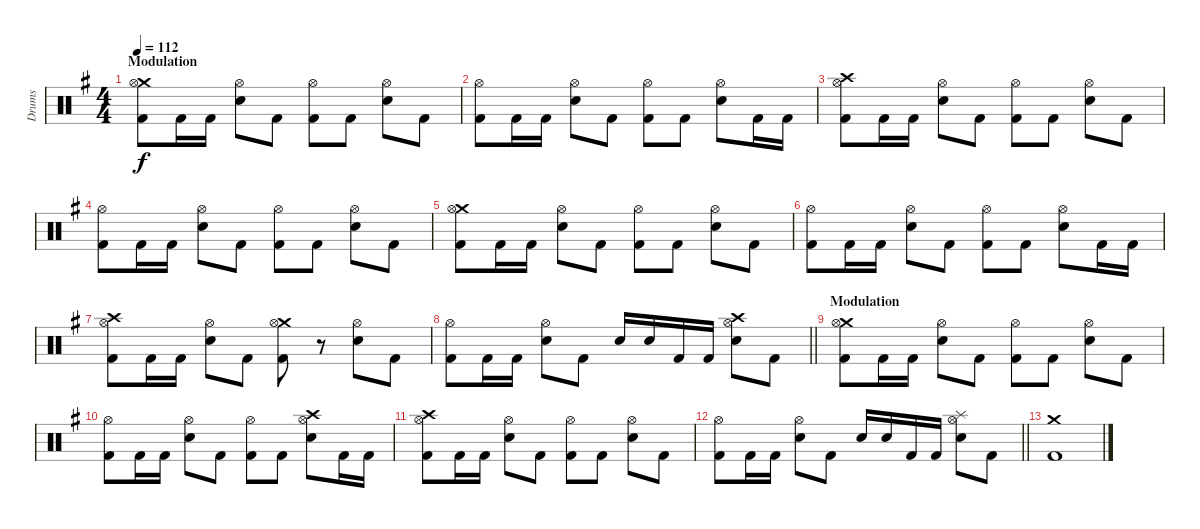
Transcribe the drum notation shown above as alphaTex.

\track ("Drums" "Drums") {instrument percussion}
\staff {score}
\articulation defaults
\ts (4 4)
\section ("" "Modulation")
\tempo 112
\clef neutral
\ks eminor
("Crash medium (hit)" "Hi-Hat (open)" "Kick (hit) 2").8{dy f} "Kick (hit) 2".16 "Kick (hit) 2".16 ("Hi-Hat (open)" "Electric Snare (hit)").8 "Kick (hit) 2".8 ("Hi-Hat (open)" "Kick (hit) 2").8 "Kick (hit) 2".8 ("Hi-Hat (open)" "Electric Snare (hit)").8 "Kick (hit) 2".8 |
("Hi-Hat (open)" "Kick (hit) 2").8 "Kick (hit) 2".16 "Kick (hit) 2".16 ("Hi-Hat (open)" "Electric Snare (hit)").8 "Kick (hit) 2".8 ("Hi-Hat (open)" "Kick (hit) 2").8 "Kick (hit) 2".8 ("Hi-Hat (open)" "Electric Snare (hit)").8 "Kick (hit) 2".16 "Kick (hit) 2".16 |
("Crash high (hit)" "Hi-Hat (open)" "Kick (hit) 2").8 "Kick (hit) 2".16 "Kick (hit) 2".16 ("Hi-Hat (open)" "Electric Snare (hit)").8 "Kick (hit) 2".8 ("Hi-Hat (open)" "Kick (hit) 2").8 "Kick (hit) 2".8 ("Hi-Hat (open)" "Electric Snare (hit)").8 "Kick (hit) 2".8 |
("Hi-Hat (open)" "Kick (hit) 2").8 "Kick (hit) 2".16 "Kick (hit) 2".16 ("Hi-Hat (open)" "Electric Snare (hit)").8 "Kick (hit) 2".8 ("Hi-Hat (open)" "Kick (hit) 2").8 "Kick (hit) 2".8 ("Hi-Hat (open)" "Electric Snare (hit)").8 "Kick (hit) 2".8 |
("Crash medium (hit)" "Hi-Hat (open)" "Kick (hit) 2").8 "Kick (hit) 2".16 "Kick (hit) 2".16 ("Hi-Hat (open)" "Electric Snare (hit)").8 "Kick (hit) 2".8 ("Hi-Hat (open)" "Kick (hit) 2").8 "Kick (hit) 2".8 ("Hi-Hat (open)" "Electric Snare (hit)").8 "Kick (hit) 2".8 |
("Hi-Hat (open)" "Kick (hit) 2").8 "Kick (hit) 2".16 "Kick (hit) 2".16 ("Hi-Hat (open)" "Electric Snare (hit)").8 "Kick (hit) 2".8 ("Hi-Hat (open)" "Kick (hit) 2").8 "Kick (hit) 2".8 ("Hi-Hat (open)" "Electric Snare (hit)").8 "Kick (hit) 2".16 "Kick (hit) 2".16 |
("Crash high (hit)" "Hi-Hat (open)" "Kick (hit) 2").8 "Kick (hit) 2".16 "Kick (hit) 2".16 ("Hi-Hat (open)" "Electric Snare (hit)").8 "Kick (hit) 2".8 ("Crash medium (hit)" "Hi-Hat (open)" "Kick (hit) 2").8 r.8 ("Hi-Hat (open)" "Electric Snare (hit)").8 "Kick (hit) 2".8 |
\barLineRight lightlight
("Hi-Hat (open)" "Kick (hit) 2").8 "Kick (hit) 2".16 "Kick (hit) 2".16 ("Hi-Hat (open)" "Electric Snare (hit)").8 "Kick (hit) 2".8 "Electric Snare (hit)".16 "Electric Snare (hit)".16 "Kick (hit) 2".16 "Kick (hit) 2".16 ("Crash high (hit)" "Hi-Hat (open)" "Electric Snare (hit)").8 "Kick (hit) 2".8 |
\section ("" "Modulation")
("Crash medium (hit)" "Hi-Hat (open)" "Kick (hit) 2").8 "Kick (hit) 2".16 "Kick (hit) 2".16 ("Hi-Hat (open)" "Electric Snare (hit)").8 "Kick (hit) 2".8 ("Hi-Hat (open)" "Kick (hit) 2").8 "Kick (hit) 2".8 ("Hi-Hat (open)" "Electric Snare (hit)").8 "Kick (hit) 2".8 |
("Hi-Hat (open)" "Kick (hit) 2").8 "Kick (hit) 2".16 "Kick (hit) 2".16 ("Hi-Hat (open)" "Electric Snare (hit)").8 "Kick (hit) 2".8 ("Hi-Hat (open)" "Kick (hit) 2").8 "Kick (hit) 2".8 ("Crash high (hit)" "Hi-Hat (open)" "Electric Snare (hit)").8 "Kick (hit) 2".16 "Kick (hit) 2".16 |
("Crash high (hit)" "Hi-Hat (open)" "Kick (hit) 2").8 "Kick (hit) 2".16 "Kick (hit) 2".16 ("Hi-Hat (open)" "Electric Snare (hit)").8 "Kick (hit) 2".8 ("Hi-Hat (open)" "Kick (hit) 2").8 "Kick (hit) 2".8 ("Hi-Hat (open)" "Electric Snare (hit)").8 "Kick (hit) 2".8 |
\barLineRight lightlight
("Hi-Hat (open)" "Kick (hit) 2").8 "Kick (hit) 2".16 "Kick (hit) 2".16 ("Hi-Hat (open)" "Electric Snare (hit)").8 "Kick (hit) 2".8 "Electric Snare (hit)".16 "Electric Snare (hit)".16 "Kick (hit) 2".16 "Kick (hit) 2".16 ("Splash (hit)" "Hi-Hat (open)" "Electric Snare (hit)").8 "Kick (hit) 2".8 |
("Crash medium (hit)" "Kick (hit) 2").1
